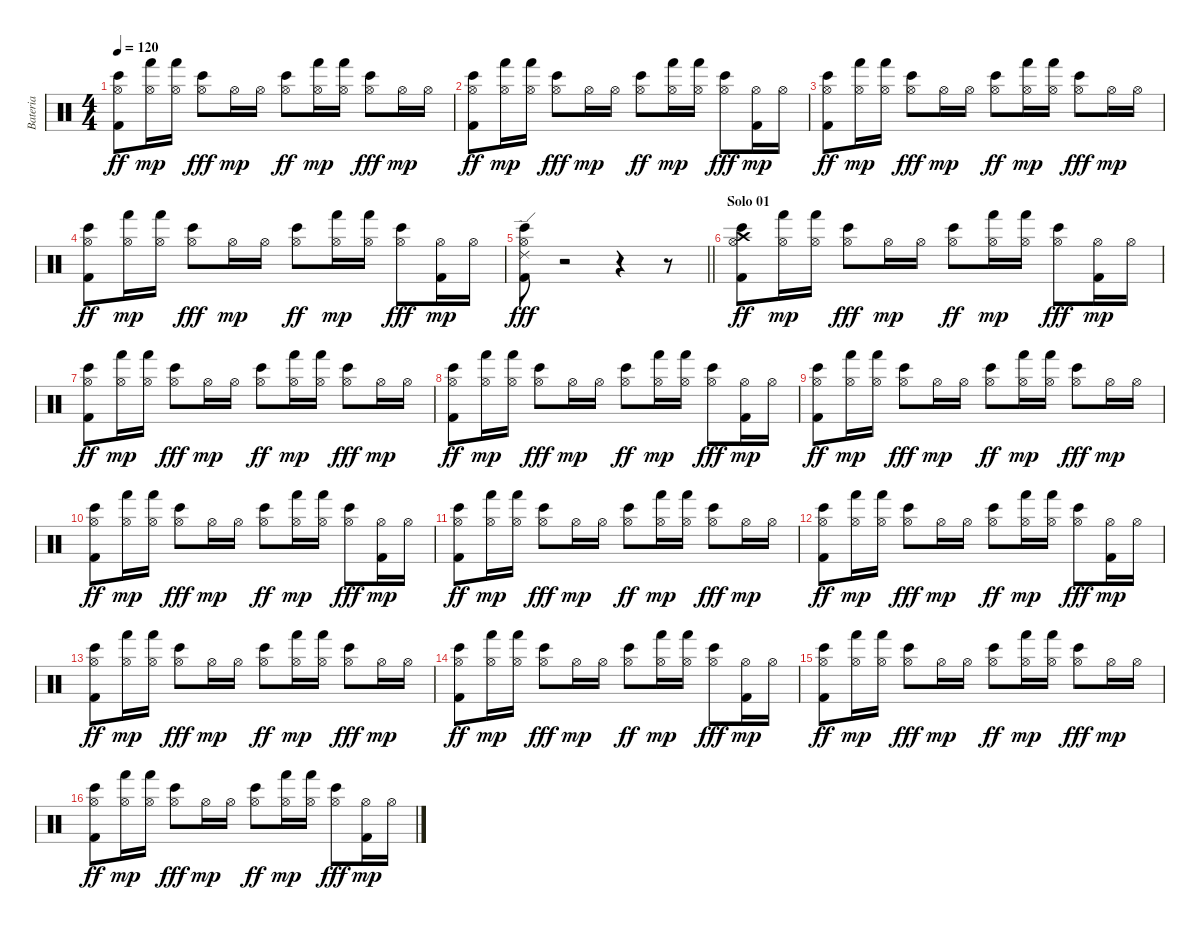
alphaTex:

\track ("Bateria" "Bateria") {instrument percussion}
\staff {score}
\articulation defaults
\ts (4 4)
\tempo 120
\clef neutral
\ks c
("Hi-Hat (open)" "Kick (hit) 2" "Bongo High (hit)").8{dy ff} ("Hi-Hat (open)" "Hand (hit)").16{dy mp} ("Hi-Hat (open)" "Hand (hit)").16 ("Hi-Hat (open)" "Bongo High (hit)").8{dy fff} "Hi-Hat (open)".16{dy mp} "Hi-Hat (open)".16 ("Hi-Hat (open)" "Bongo High (hit)").8{dy ff} ("Hi-Hat (open)" "Hand (hit)").16{dy mp} ("Hi-Hat (open)" "Hand (hit)").16 ("Hi-Hat (open)" "Bongo High (hit)").8{dy fff} "Hi-Hat (open)".16{dy mp} "Hi-Hat (open)".16 |
("Hi-Hat (open)" "Kick (hit) 2" "Bongo High (hit)").8{dy ff} ("Hi-Hat (open)" "Hand (hit)").16{dy mp} ("Hi-Hat (open)" "Hand (hit)").16 ("Hi-Hat (open)" "Bongo High (hit)").8{dy fff} "Hi-Hat (open)".16{dy mp} "Hi-Hat (open)".16 ("Hi-Hat (open)" "Bongo High (hit)").8{dy ff} ("Hi-Hat (open)" "Hand (hit)").16{dy mp} ("Hi-Hat (open)" "Hand (hit)").16 ("Hi-Hat (open)" "Bongo High (hit)").8{dy fff} ("Hi-Hat (open)" "Kick (hit) 2").16{dy mp} "Hi-Hat (open)".16 |
("Hi-Hat (open)" "Kick (hit) 2" "Bongo High (hit)").8{dy ff} ("Hi-Hat (open)" "Hand (hit)").16{dy mp} ("Hi-Hat (open)" "Hand (hit)").16 ("Hi-Hat (open)" "Bongo High (hit)").8{dy fff} "Hi-Hat (open)".16{dy mp} "Hi-Hat (open)".16 ("Hi-Hat (open)" "Bongo High (hit)").8{dy ff} ("Hi-Hat (open)" "Hand (hit)").16{dy mp} ("Hi-Hat (open)" "Hand (hit)").16 ("Hi-Hat (open)" "Bongo High (hit)").8{dy fff} "Hi-Hat (open)".16{dy mp} "Hi-Hat (open)".16 |
("Hi-Hat (open)" "Kick (hit) 2" "Bongo High (hit)").8{dy ff} ("Hi-Hat (open)" "Hand (hit)").16{dy mp} ("Hi-Hat (open)" "Hand (hit)").16 ("Hi-Hat (open)" "Bongo High (hit)").8{dy fff} "Hi-Hat (open)".16{dy mp} "Hi-Hat (open)".16 ("Hi-Hat (open)" "Bongo High (hit)").8{dy ff} ("Hi-Hat (open)" "Hand (hit)").16{dy mp} ("Hi-Hat (open)" "Hand (hit)").16 ("Hi-Hat (open)" "Bongo High (hit)").8{dy fff} ("Hi-Hat (open)" "Kick (hit) 2").16{dy mp} "Hi-Hat (open)".16 |
\barLineRight lightlight
("Hi-Hat (open)" "Kick (hit) 2" "Bongo High (hit)" "Ride (edge) 2").8{dy fff} r.2 r.4 r.8 |
\section ("" "Solo 01")
("Hi-Hat (open)" "Kick (hit) 2" "Bongo High (hit)" "Crash high (hit)").8{dy ff} ("Hi-Hat (open)" "Hand (hit)").16{dy mp} ("Hi-Hat (open)" "Hand (hit)").16 ("Hi-Hat (open)" "Bongo High (hit)").8{dy fff} "Hi-Hat (open)".16{dy mp} "Hi-Hat (open)".16 ("Hi-Hat (open)" "Bongo High (hit)").8{dy ff} ("Hi-Hat (open)" "Hand (hit)").16{dy mp} ("Hi-Hat (open)" "Hand (hit)").16 ("Hi-Hat (open)" "Bongo High (hit)").8{dy fff} ("Hi-Hat (open)" "Kick (hit) 2").16{dy mp} "Hi-Hat (open)".16 |
("Hi-Hat (open)" "Kick (hit) 2" "Bongo High (hit)").8{dy ff} ("Hi-Hat (open)" "Hand (hit)").16{dy mp} ("Hi-Hat (open)" "Hand (hit)").16 ("Hi-Hat (open)" "Bongo High (hit)").8{dy fff} "Hi-Hat (open)".16{dy mp} "Hi-Hat (open)".16 ("Hi-Hat (open)" "Bongo High (hit)").8{dy ff} ("Hi-Hat (open)" "Hand (hit)").16{dy mp} ("Hi-Hat (open)" "Hand (hit)").16 ("Hi-Hat (open)" "Bongo High (hit)").8{dy fff} "Hi-Hat (open)".16{dy mp} "Hi-Hat (open)".16 |
("Hi-Hat (open)" "Kick (hit) 2" "Bongo High (hit)").8{dy ff} ("Hi-Hat (open)" "Hand (hit)").16{dy mp} ("Hi-Hat (open)" "Hand (hit)").16 ("Hi-Hat (open)" "Bongo High (hit)").8{dy fff} "Hi-Hat (open)".16{dy mp} "Hi-Hat (open)".16 ("Hi-Hat (open)" "Bongo High (hit)").8{dy ff} ("Hi-Hat (open)" "Hand (hit)").16{dy mp} ("Hi-Hat (open)" "Hand (hit)").16 ("Hi-Hat (open)" "Bongo High (hit)").8{dy fff} ("Hi-Hat (open)" "Kick (hit) 2").16{dy mp} "Hi-Hat (open)".16 |
("Hi-Hat (open)" "Kick (hit) 2" "Bongo High (hit)").8{dy ff} ("Hi-Hat (open)" "Hand (hit)").16{dy mp} ("Hi-Hat (open)" "Hand (hit)").16 ("Hi-Hat (open)" "Bongo High (hit)").8{dy fff} "Hi-Hat (open)".16{dy mp} "Hi-Hat (open)".16 ("Hi-Hat (open)" "Bongo High (hit)").8{dy ff} ("Hi-Hat (open)" "Hand (hit)").16{dy mp} ("Hi-Hat (open)" "Hand (hit)").16 ("Hi-Hat (open)" "Bongo High (hit)").8{dy fff} "Hi-Hat (open)".16{dy mp} "Hi-Hat (open)".16 |
("Hi-Hat (open)" "Kick (hit) 2" "Bongo High (hit)").8{dy ff} ("Hi-Hat (open)" "Hand (hit)").16{dy mp} ("Hi-Hat (open)" "Hand (hit)").16 ("Hi-Hat (open)" "Bongo High (hit)").8{dy fff} "Hi-Hat (open)".16{dy mp} "Hi-Hat (open)".16 ("Hi-Hat (open)" "Bongo High (hit)").8{dy ff} ("Hi-Hat (open)" "Hand (hit)").16{dy mp} ("Hi-Hat (open)" "Hand (hit)").16 ("Hi-Hat (open)" "Bongo High (hit)").8{dy fff} ("Hi-Hat (open)" "Kick (hit) 2").16{dy mp} "Hi-Hat (open)".16 |
("Hi-Hat (open)" "Kick (hit) 2" "Bongo High (hit)").8{dy ff} ("Hi-Hat (open)" "Hand (hit)").16{dy mp} ("Hi-Hat (open)" "Hand (hit)").16 ("Hi-Hat (open)" "Bongo High (hit)").8{dy fff} "Hi-Hat (open)".16{dy mp} "Hi-Hat (open)".16 ("Hi-Hat (open)" "Bongo High (hit)").8{dy ff} ("Hi-Hat (open)" "Hand (hit)").16{dy mp} ("Hi-Hat (open)" "Hand (hit)").16 ("Hi-Hat (open)" "Bongo High (hit)").8{dy fff} "Hi-Hat (open)".16{dy mp} "Hi-Hat (open)".16 |
("Hi-Hat (open)" "Kick (hit) 2" "Bongo High (hit)").8{dy ff} ("Hi-Hat (open)" "Hand (hit)").16{dy mp} ("Hi-Hat (open)" "Hand (hit)").16 ("Hi-Hat (open)" "Bongo High (hit)").8{dy fff} "Hi-Hat (open)".16{dy mp} "Hi-Hat (open)".16 ("Hi-Hat (open)" "Bongo High (hit)").8{dy ff} ("Hi-Hat (open)" "Hand (hit)").16{dy mp} ("Hi-Hat (open)" "Hand (hit)").16 ("Hi-Hat (open)" "Bongo High (hit)").8{dy fff} ("Hi-Hat (open)" "Kick (hit) 2").16{dy mp} "Hi-Hat (open)".16 |
("Hi-Hat (open)" "Kick (hit) 2" "Bongo High (hit)").8{dy ff} ("Hi-Hat (open)" "Hand (hit)").16{dy mp} ("Hi-Hat (open)" "Hand (hit)").16 ("Hi-Hat (open)" "Bongo High (hit)").8{dy fff} "Hi-Hat (open)".16{dy mp} "Hi-Hat (open)".16 ("Hi-Hat (open)" "Bongo High (hit)").8{dy ff} ("Hi-Hat (open)" "Hand (hit)").16{dy mp} ("Hi-Hat (open)" "Hand (hit)").16 ("Hi-Hat (open)" "Bongo High (hit)").8{dy fff} "Hi-Hat (open)".16{dy mp} "Hi-Hat (open)".16 |
("Hi-Hat (open)" "Kick (hit) 2" "Bongo High (hit)").8{dy ff} ("Hi-Hat (open)" "Hand (hit)").16{dy mp} ("Hi-Hat (open)" "Hand (hit)").16 ("Hi-Hat (open)" "Bongo High (hit)").8{dy fff} "Hi-Hat (open)".16{dy mp} "Hi-Hat (open)".16 ("Hi-Hat (open)" "Bongo High (hit)").8{dy ff} ("Hi-Hat (open)" "Hand (hit)").16{dy mp} ("Hi-Hat (open)" "Hand (hit)").16 ("Hi-Hat (open)" "Bongo High (hit)").8{dy fff} ("Hi-Hat (open)" "Kick (hit) 2").16{dy mp} "Hi-Hat (open)".16 |
("Hi-Hat (open)" "Kick (hit) 2" "Bongo High (hit)").8{dy ff} ("Hi-Hat (open)" "Hand (hit)").16{dy mp} ("Hi-Hat (open)" "Hand (hit)").16 ("Hi-Hat (open)" "Bongo High (hit)").8{dy fff} "Hi-Hat (open)".16{dy mp} "Hi-Hat (open)".16 ("Hi-Hat (open)" "Bongo High (hit)").8{dy ff} ("Hi-Hat (open)" "Hand (hit)").16{dy mp} ("Hi-Hat (open)" "Hand (hit)").16 ("Hi-Hat (open)" "Bongo High (hit)").8{dy fff} "Hi-Hat (open)".16{dy mp} "Hi-Hat (open)".16 |
("Hi-Hat (open)" "Kick (hit) 2" "Bongo High (hit)").8{dy ff} ("Hi-Hat (open)" "Hand (hit)").16{dy mp} ("Hi-Hat (open)" "Hand (hit)").16 ("Hi-Hat (open)" "Bongo High (hit)").8{dy fff} "Hi-Hat (open)".16{dy mp} "Hi-Hat (open)".16 ("Hi-Hat (open)" "Bongo High (hit)").8{dy ff} ("Hi-Hat (open)" "Hand (hit)").16{dy mp} ("Hi-Hat (open)" "Hand (hit)").16 ("Hi-Hat (open)" "Bongo High (hit)").8{dy fff} ("Hi-Hat (open)" "Kick (hit) 2").16{dy mp} "Hi-Hat (open)".16
